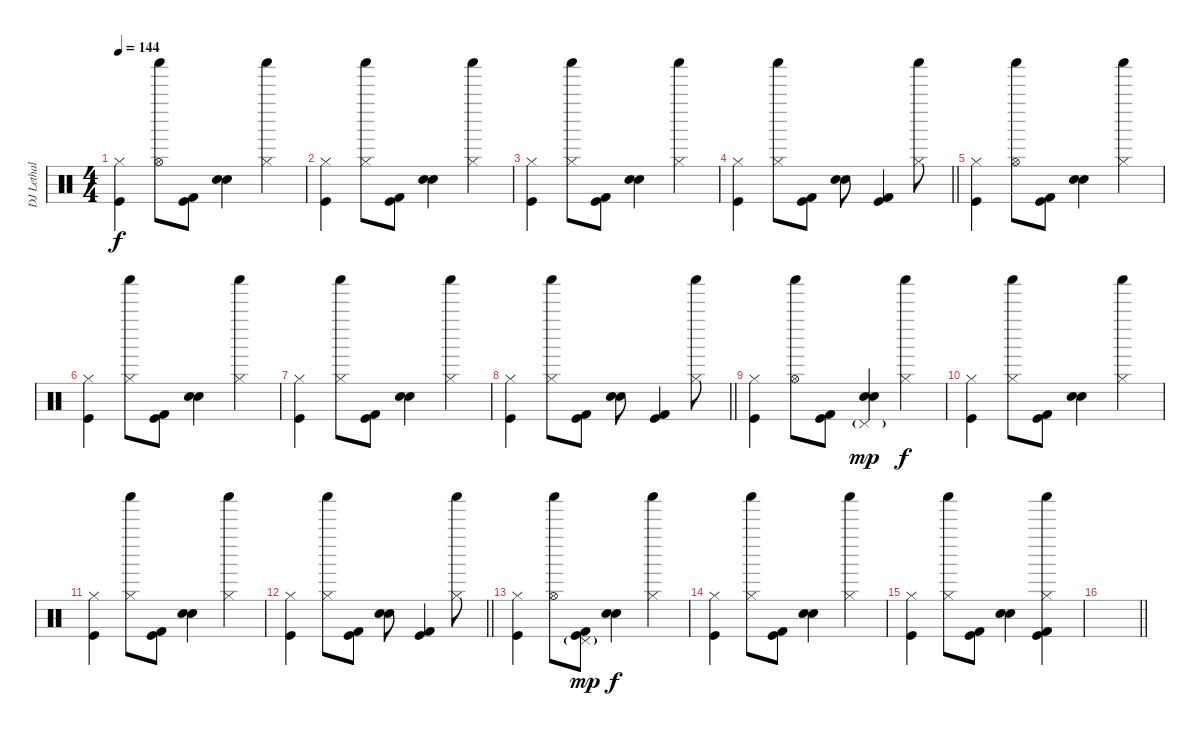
\track ("DJ Lethal + John" "DJ Lethal ") {instrument percussion}
\staff {score}
\articulation defaults
\ts (4 4)
\tempo 144
\clef neutral
\ks c
("Hi-Hat (closed)" "Kick (hit)").4{dy f} ("Hi-Hat (open)" "Shaker (hit)").8 ("Kick (hit) 2" "Kick (hit)").8 ("Hand Clap (hit)" "Electric Snare (hit)").4 ("Hi-Hat (closed)" "Shaker (hit)").4 |
("Hi-Hat (closed)" "Kick (hit)").4 ("Hi-Hat (closed)" "Shaker (hit)").8 ("Kick (hit) 2" "Kick (hit)").8 ("Hand Clap (hit)" "Electric Snare (hit)").4 ("Hi-Hat (closed)" "Shaker (hit)").4 |
("Hi-Hat (closed)" "Kick (hit)").4 ("Hi-Hat (closed)" "Shaker (hit)").8 ("Kick (hit) 2" "Kick (hit)").8 ("Hand Clap (hit)" "Electric Snare (hit)").4 ("Hi-Hat (closed)" "Shaker (hit)").4 |
\barLineRight lightlight
("Hi-Hat (closed)" "Kick (hit)").4 ("Hi-Hat (closed)" "Shaker (hit)").8 ("Kick (hit) 2" "Kick (hit)").8 ("Hand Clap (hit)" "Electric Snare (hit)").8 ("Kick (hit) 2" "Kick (hit)").4 ("Hi-Hat (closed)" "Shaker (hit)").8 |
("Hi-Hat (closed)" "Kick (hit)").4 ("Hi-Hat (open)" "Shaker (hit)").8 ("Kick (hit) 2" "Kick (hit)").8 ("Hand Clap (hit)" "Electric Snare (hit)").4 ("Hi-Hat (closed)" "Shaker (hit)").4 |
("Hi-Hat (closed)" "Kick (hit)").4 ("Hi-Hat (closed)" "Shaker (hit)").8 ("Kick (hit) 2" "Kick (hit)").8 ("Hand Clap (hit)" "Electric Snare (hit)").4 ("Hi-Hat (closed)" "Shaker (hit)").4 |
("Hi-Hat (closed)" "Kick (hit)").4 ("Hi-Hat (closed)" "Shaker (hit)").8 ("Kick (hit) 2" "Kick (hit)").8 ("Hand Clap (hit)" "Electric Snare (hit)").4 ("Hi-Hat (closed)" "Shaker (hit)").4 |
\barLineRight lightlight
("Hi-Hat (closed)" "Kick (hit)").4 ("Hi-Hat (closed)" "Shaker (hit)").8 ("Kick (hit) 2" "Kick (hit)").8 ("Hand Clap (hit)" "Electric Snare (hit)").8 ("Kick (hit) 2" "Kick (hit)").4 ("Hi-Hat (closed)" "Shaker (hit)").8 |
("Hi-Hat (closed)" "Kick (hit)").4 ("Hi-Hat (open)" "Shaker (hit)").8 ("Kick (hit) 2" "Kick (hit)").8 ("Pedal Hi-Hat (hit)"{g} "Hand Clap (hit)" "Electric Snare (hit)").4{dy mp} ("Hi-Hat (closed)" "Shaker (hit)").4{dy f} |
("Hi-Hat (closed)" "Kick (hit)").4 ("Hi-Hat (closed)" "Shaker (hit)").8 ("Kick (hit) 2" "Kick (hit)").8 ("Hand Clap (hit)" "Electric Snare (hit)").4 ("Hi-Hat (closed)" "Shaker (hit)").4 |
("Hi-Hat (closed)" "Kick (hit)").4 ("Hi-Hat (closed)" "Shaker (hit)").8 ("Kick (hit) 2" "Kick (hit)").8 ("Hand Clap (hit)" "Electric Snare (hit)").4 ("Hi-Hat (closed)" "Shaker (hit)").4 |
\barLineRight lightlight
("Hi-Hat (closed)" "Kick (hit)").4 ("Hi-Hat (closed)" "Shaker (hit)").8 ("Kick (hit) 2" "Kick (hit)").8 ("Hand Clap (hit)" "Electric Snare (hit)").8 ("Kick (hit) 2" "Kick (hit)").4 ("Hi-Hat (closed)" "Shaker (hit)").8 |
("Hi-Hat (closed)" "Kick (hit)").4 ("Hi-Hat (open)" "Shaker (hit)").8 ("Pedal Hi-Hat (hit)"{g} "Kick (hit) 2" "Kick (hit)").8{dy mp} ("Hand Clap (hit)" "Electric Snare (hit)").4{dy f} ("Hi-Hat (closed)" "Shaker (hit)").4 |
("Hi-Hat (closed)" "Kick (hit)").4 ("Hi-Hat (closed)" "Shaker (hit)").8 ("Kick (hit) 2" "Kick (hit)").8 ("Hand Clap (hit)" "Electric Snare (hit)").4 ("Hi-Hat (closed)" "Shaker (hit)").4 |
("Hi-Hat (closed)" "Kick (hit)").4 ("Hi-Hat (closed)" "Shaker (hit)").8 ("Kick (hit) 2" "Kick (hit)").8 ("Hand Clap (hit)" "Electric Snare (hit)").4 ("Hi-Hat (closed)" "Shaker (hit)" "Kick (hit) 2" "Kick (hit)").4 |
\barLineRight lightlight
